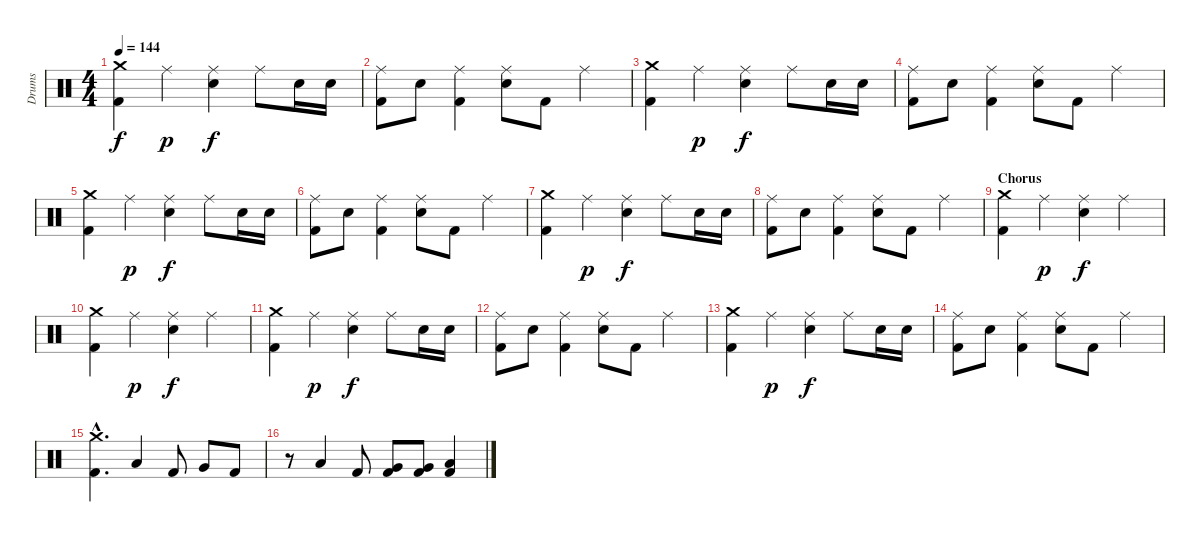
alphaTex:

\track ("Drums" "Drums") {instrument percussion}
\staff {score}
\articulation defaults
\ts (4 4)
\tempo 144
\clef neutral
\ks c
("Crash medium (hit)" "Kick (hit) 2").4{dy f} "Ride (middle)".4{dy p} ("Ride (middle)" "Snare (hit) 2").4{dy f} "Ride (middle)".8 "Snare (hit) 2".16 "Snare (hit) 2".16 |
("Ride (middle)" "Kick (hit) 2").8 "Snare (hit) 2".8 ("Ride (middle)" "Kick (hit) 2").4 ("Ride (middle)" "Snare (hit) 2").8 "Kick (hit) 2".8 "Ride (middle)".4 |
("Crash medium (hit)" "Kick (hit) 2").4 "Ride (middle)".4{dy p} ("Ride (middle)" "Snare (hit) 2").4{dy f} "Ride (middle)".8 "Snare (hit) 2".16 "Snare (hit) 2".16 |
("Ride (middle)" "Kick (hit) 2").8 "Snare (hit) 2".8 ("Ride (middle)" "Kick (hit) 2").4 ("Ride (middle)" "Snare (hit) 2").8 "Kick (hit) 2".8 "Ride (middle)".4 |
("Crash medium (hit)" "Kick (hit) 2").4 "Ride (middle)".4{dy p} ("Ride (middle)" "Snare (hit) 2").4{dy f} "Ride (middle)".8 "Snare (hit) 2".16 "Snare (hit) 2".16 |
("Ride (middle)" "Kick (hit) 2").8 "Snare (hit) 2".8 ("Ride (middle)" "Kick (hit) 2").4 ("Ride (middle)" "Snare (hit) 2").8 "Kick (hit) 2".8 "Ride (middle)".4 |
("Crash medium (hit)" "Kick (hit) 2").4 "Ride (middle)".4{dy p} ("Ride (middle)" "Snare (hit) 2").4{dy f} "Ride (middle)".8 "Snare (hit) 2".16 "Snare (hit) 2".16 |
("Ride (middle)" "Kick (hit) 2").8 "Snare (hit) 2".8 ("Ride (middle)" "Kick (hit) 2").4 ("Ride (middle)" "Snare (hit) 2").8 "Kick (hit) 2".8 "Ride (middle)".4 |
\section ("" "Chorus")
("Crash medium (hit)" "Kick (hit) 2").4 "Ride (middle)".4{dy p} ("Ride (middle)" "Snare (hit) 2").4{dy f} "Ride (middle)".4 |
("Crash medium (hit)" "Kick (hit) 2").4 "Ride (middle)".4{dy p} ("Ride (middle)" "Snare (hit) 2").4{dy f} "Ride (middle)".4 |
("Crash medium (hit)" "Kick (hit) 2").4 "Ride (middle)".4{dy p} ("Ride (middle)" "Snare (hit) 2").4{dy f} "Ride (middle)".8 "Snare (hit) 2".16 "Snare (hit) 2".16 |
("Ride (middle)" "Kick (hit) 2").8 "Snare (hit) 2".8 ("Ride (middle)" "Kick (hit) 2").4 ("Ride (middle)" "Snare (hit) 2").8 "Kick (hit) 2".8 "Ride (middle)".4 |
("Crash medium (hit)" "Kick (hit) 2").4 "Ride (middle)".4{dy p} ("Ride (middle)" "Snare (hit) 2").4{dy f} "Ride (middle)".8 "Snare (hit) 2".16 "Snare (hit) 2".16 |
("Ride (middle)" "Kick (hit) 2").8 "Snare (hit) 2".8 ("Ride (middle)" "Kick (hit) 2").4 ("Ride (middle)" "Snare (hit) 2").8 "Kick (hit) 2".8 "Ride (middle)".4 |
("Crash medium (hit)"{hac} "Kick (hit) 2"{hac}).4{d} "Low Tom (hit)".4 "Kick (hit) 2".8 "Very Low Tom (hit)".8 "Kick (hit) 2".8 |
r.8 "Low Tom (hit)".4 "Kick (hit) 2".8 ("Very Low Tom (hit)" "Kick (hit) 2").8 ("Very Low Tom (hit)" "Kick (hit) 2").8 ("Low Floor Tom (hit)" "Kick (hit) 2").4
